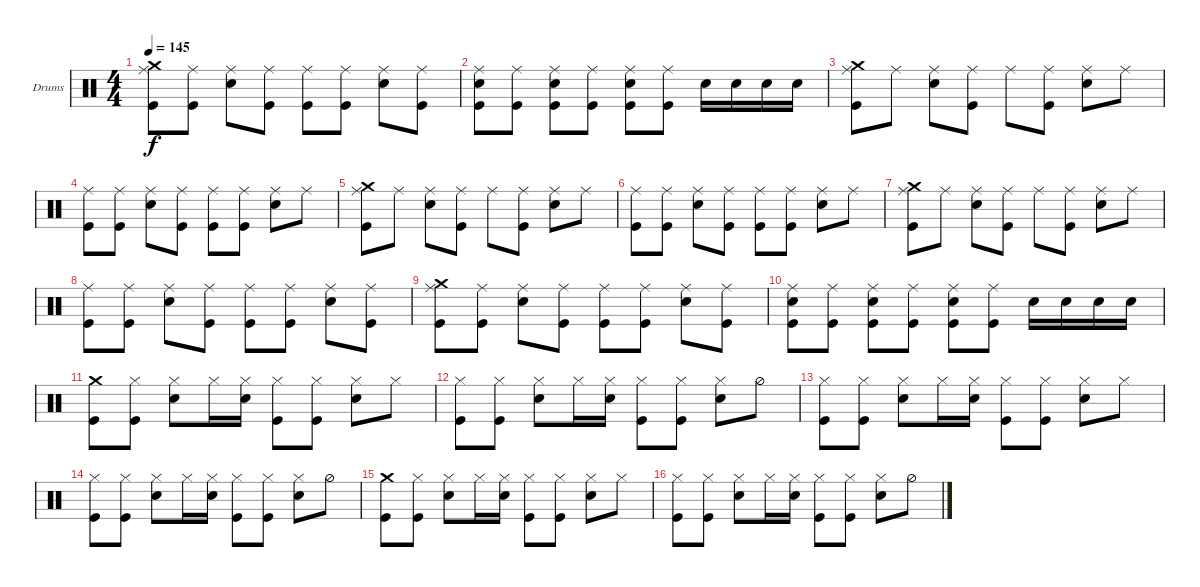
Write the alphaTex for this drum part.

\defaultSystemsLayout 4
\bracketExtendMode groupsimilarinstruments
\firstSystemTrackNameOrientation horizontal
\otherSystemsTrackNameOrientation horizontal
\track ("Nikola" "Drums") {instrument percussion}
\staff {score}
\articulation defaults
\ts (4 4)
\tempo 145
\clef neutral
\ks c
("Crash medium (hit)" "Kick (hit)" "Ride (middle)").8{dy f} ("Ride (middle)" "Kick (hit)").8 ("Snare (hit) 2" "Ride (middle)").8 ("Kick (hit)" "Ride (middle)").8 ("Ride (middle)" "Kick (hit)").8 ("Kick (hit)" "Ride (middle)").8 ("Snare (hit) 2" "Ride (middle)").8 ("Ride (middle)" "Kick (hit)").8 |
("Kick (hit)" "Snare (hit) 2" "Ride (middle)").8 ("Kick (hit)" "Ride (middle)").8 ("Kick (hit)" "Snare (hit) 2" "Ride (middle)").8 ("Kick (hit)" "Ride (middle)").8 ("Kick (hit)" "Snare (hit) 2" "Ride (middle)").8 ("Kick (hit)" "Ride (middle)").8 "Snare (hit) 2".16 "Snare (hit) 2".16 "Snare (hit) 2".16 "Snare (hit) 2".16 |
("Kick (hit)" "Ride (middle)" "Crash medium (hit)").8 "Ride (middle)".8 ("Snare (hit) 2" "Ride (middle)").8 ("Kick (hit)" "Ride (middle)").8 "Ride (middle)".8 ("Kick (hit)" "Ride (middle)").8 ("Snare (hit) 2" "Ride (middle)").8 "Ride (middle)".8 |
("Kick (hit)" "Ride (middle)").8 ("Kick (hit)" "Ride (middle)").8 ("Snare (hit) 2" "Ride (middle)").8 ("Kick (hit)" "Ride (middle)").8 ("Kick (hit)" "Ride (middle)").8 ("Kick (hit)" "Ride (middle)").8 ("Snare (hit) 2" "Ride (middle)").8 "Ride (middle)".8 |
("Crash medium (hit)" "Kick (hit)" "Ride (middle)").8 "Ride (middle)".8 ("Snare (hit) 2" "Ride (middle)").8 ("Kick (hit)" "Ride (middle)").8 "Ride (middle)".8 ("Kick (hit)" "Ride (middle)").8 ("Snare (hit) 2" "Ride (middle)").8 "Ride (middle)".8 |
("Kick (hit)" "Ride (middle)").8 ("Kick (hit)" "Ride (middle)").8 ("Snare (hit) 2" "Ride (middle)").8 ("Kick (hit)" "Ride (middle)").8 ("Kick (hit)" "Ride (middle)").8 ("Kick (hit)" "Ride (middle)").8 ("Snare (hit) 2" "Ride (middle)").8 "Ride (middle)".8 |
("Kick (hit)" "Ride (middle)" "Crash medium (hit)").8 "Ride (middle)".8 ("Snare (hit) 2" "Ride (middle)").8 ("Kick (hit)" "Ride (middle)").8 "Ride (middle)".8 ("Kick (hit)" "Ride (middle)").8 ("Snare (hit) 2" "Ride (middle)").8 "Ride (middle)".8 |
("Kick (hit)" "Ride (middle)").8 ("Kick (hit)" "Ride (middle)").8 ("Snare (hit) 2" "Ride (middle)").8 ("Kick (hit)" "Ride (middle)").8 ("Kick (hit)" "Ride (middle)").8 ("Kick (hit)" "Ride (middle)").8 ("Snare (hit) 2" "Ride (middle)").8 ("Ride (middle)" "Kick (hit)").8 |
("Crash medium (hit)" "Kick (hit)" "Ride (middle)").8 ("Ride (middle)" "Kick (hit)").8 ("Snare (hit) 2" "Ride (middle)").8 ("Kick (hit)" "Ride (middle)").8 ("Ride (middle)" "Kick (hit)").8 ("Kick (hit)" "Ride (middle)").8 ("Snare (hit) 2" "Ride (middle)").8 ("Ride (middle)" "Kick (hit)").8 |
("Kick (hit)" "Snare (hit) 2" "Ride (middle)").8 ("Kick (hit)" "Ride (middle)").8 ("Kick (hit)" "Snare (hit) 2" "Ride (middle)").8 ("Kick (hit)" "Ride (middle)").8 ("Kick (hit)" "Snare (hit) 2" "Ride (middle)").8 ("Kick (hit)" "Ride (middle)").8 "Snare (hit) 2".16 "Snare (hit) 2".16 "Snare (hit) 2".16 "Snare (hit) 2".16 |
("Kick (hit)" "Crash medium (hit)").8 ("Kick (hit)" "Hi-Hat (closed)").8 ("Snare (hit) 2" "Hi-Hat (closed)").8 "Hi-Hat (closed)".16 ("Snare (hit) 2" "Hi-Hat (closed)").16 ("Kick (hit)" "Hi-Hat (closed)").8 ("Kick (hit)" "Hi-Hat (closed)").8 ("Snare (hit) 2" "Hi-Hat (closed)").8 "Hi-Hat (closed)".8 |
("Kick (hit)" "Hi-Hat (closed)").8 ("Kick (hit)" "Hi-Hat (closed)").8 ("Snare (hit) 2" "Hi-Hat (closed)").8 "Hi-Hat (closed)".16 ("Snare (hit) 2" "Hi-Hat (closed)").16 ("Kick (hit)" "Hi-Hat (closed)").8 ("Kick (hit)" "Hi-Hat (closed)").8 ("Snare (hit) 2" "Hi-Hat (closed)").8 "Hi-Hat (half)".8 |
("Kick (hit)" "Hi-Hat (closed)").8 ("Kick (hit)" "Hi-Hat (closed)").8 ("Snare (hit) 2" "Hi-Hat (closed)").8 "Hi-Hat (closed)".16 ("Snare (hit) 2" "Hi-Hat (closed)").16 ("Kick (hit)" "Hi-Hat (closed)").8 ("Kick (hit)" "Hi-Hat (closed)").8 ("Snare (hit) 2" "Hi-Hat (closed)").8 "Hi-Hat (closed)".8 |
("Kick (hit)" "Hi-Hat (closed)").8 ("Kick (hit)" "Hi-Hat (closed)").8 ("Snare (hit) 2" "Hi-Hat (closed)").8 "Hi-Hat (closed)".16 ("Snare (hit) 2" "Hi-Hat (closed)").16 ("Kick (hit)" "Hi-Hat (closed)").8 ("Kick (hit)" "Hi-Hat (closed)").8 ("Snare (hit) 2" "Hi-Hat (closed)").8 "Hi-Hat (half)".8 |
("Kick (hit)" "Crash medium (hit)").8 ("Kick (hit)" "Hi-Hat (closed)").8 ("Snare (hit) 2" "Hi-Hat (closed)").8 "Hi-Hat (closed)".16 ("Snare (hit) 2" "Hi-Hat (closed)").16 ("Kick (hit)" "Hi-Hat (closed)").8 ("Kick (hit)" "Hi-Hat (closed)").8 ("Snare (hit) 2" "Hi-Hat (closed)").8 "Hi-Hat (closed)".8 |
("Kick (hit)" "Hi-Hat (closed)").8 ("Kick (hit)" "Hi-Hat (closed)").8 ("Snare (hit) 2" "Hi-Hat (closed)").8 "Hi-Hat (closed)".16 ("Snare (hit) 2" "Hi-Hat (closed)").16 ("Kick (hit)" "Hi-Hat (closed)").8 ("Kick (hit)" "Hi-Hat (closed)").8 ("Snare (hit) 2" "Hi-Hat (closed)").8 "Hi-Hat (half)".8
